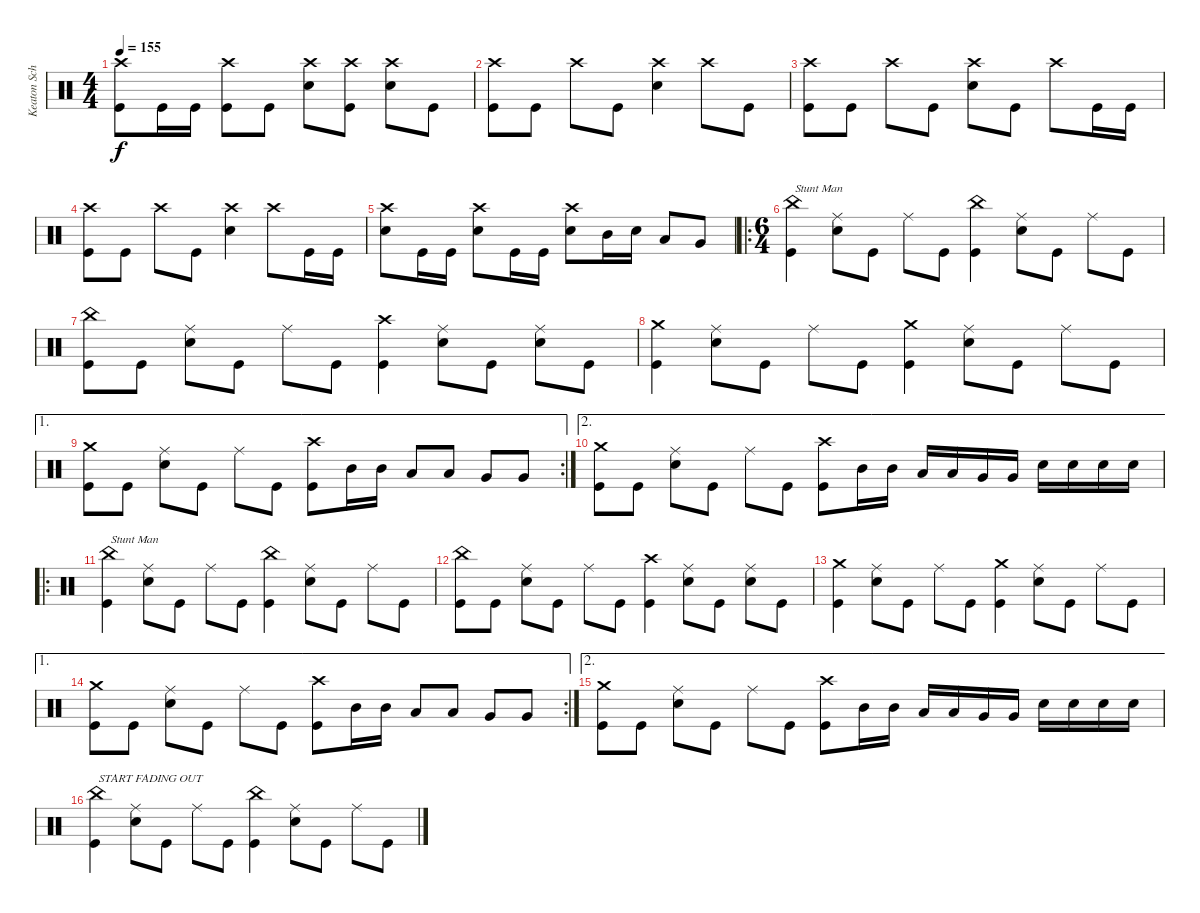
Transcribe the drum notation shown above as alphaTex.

\track ("Keaton Schluchter Drums" "Keaton Sch") {instrument percussion bank 20}
\staff {score}
\articulation defaults
\ts (4 4)
\tempo 155
\clef neutral
\ks c
("Crash high (hit)" "Kick (hit)").8{dy f} "Kick (hit)".16 "Kick (hit)".16 ("Crash high (hit)" "Kick (hit)").8 "Kick (hit)".8 ("Crash high (hit)" "Electric Snare (hit)").8 ("Crash high (hit)" "Kick (hit)").8 ("Crash high (hit)" "Electric Snare (hit)").8 "Kick (hit)".8 |
("Crash high (hit)" "Kick (hit)").8 "Kick (hit)".8 "Crash high (hit)".8 "Kick (hit)".8 ("Crash high (hit)" "Electric Snare (hit)").4 "Crash high (hit)".8 "Kick (hit)".8 |
("Crash high (hit)" "Kick (hit)").8 "Kick (hit)".8 "Crash high (hit)".8 "Kick (hit)".8 ("Crash high (hit)" "Electric Snare (hit)").8 "Kick (hit)".8 "Crash high (hit)".8 "Kick (hit)".16 "Kick (hit)".16 |
("Crash high (hit)" "Kick (hit)").8 "Kick (hit)".8 "Crash high (hit)".8 "Kick (hit)".8 ("Crash high (hit)" "Electric Snare (hit)").4 "Crash high (hit)".8 "Kick (hit)".16 "Kick (hit)".16 |
("Crash high (hit)" "Electric Snare (hit)").8 "Kick (hit)".16 "Kick (hit)".16 ("Crash high (hit)" "Electric Snare (hit)").8 "Kick (hit)".16 "Kick (hit)".16 ("Crash high (hit)" "Electric Snare (hit)").8 "Mid Tom (hit)".16 "Electric Snare (hit)".16 "Low Tom (hit)".8 "Very Low Tom (hit)".8 |
\ro
\ts (6 4)
("China (hit)" "Kick (hit)").4{txt "Stunt Man"} ("Ride (middle)" "Electric Snare (hit)").8 "Kick (hit)".8 "Ride (middle)".8 "Kick (hit)".8 ("China (hit)" "Kick (hit)").4 ("Ride (middle)" "Electric Snare (hit)").8 "Kick (hit)".8 "Ride (middle)".8 "Kick (hit)".8 |
("China (hit)" "Kick (hit)").8 "Kick (hit)".8 ("Ride (middle)" "Electric Snare (hit)").8 "Kick (hit)".8 "Ride (middle)".8 "Kick (hit)".8 ("Crash high (hit)" "Kick (hit)").4 ("Ride (middle)" "Electric Snare (hit)").8 "Kick (hit)".8 ("Ride (middle)" "Electric Snare (hit)").8 "Kick (hit)".8 |
("Crash medium (hit)" "Kick (hit)").4 ("Ride (middle)" "Electric Snare (hit)").8 "Kick (hit)".8 "Ride (middle)".8 "Kick (hit)".8 ("Crash medium (hit)" "Kick (hit)").4 ("Ride (middle)" "Electric Snare (hit)").8 "Kick (hit)".8 "Ride (middle)".8 "Kick (hit)".8 |
\ae 1
\rc 2
("Crash medium (hit)" "Kick (hit)").8 "Kick (hit)".8 ("Ride (middle)" "Electric Snare (hit)").8 "Kick (hit)".8 "Ride (middle)".8 "Kick (hit)".8 ("Crash high (hit)" "Kick (hit)").8 "Mid Tom (hit)".16 "Mid Tom (hit)".16 "Low Tom (hit)".8 "Low Tom (hit)".8 "Very Low Tom (hit)".8 "Very Low Tom (hit)".8 |
\ae 2
("Crash medium (hit)" "Kick (hit)").8 "Kick (hit)".8 ("Ride (middle)" "Electric Snare (hit)").8 "Kick (hit)".8 "Ride (middle)".8 "Kick (hit)".8 ("Crash high (hit)" "Kick (hit)").8 "Mid Tom (hit)".16 "Mid Tom (hit)".16 "Low Tom (hit)".16 "Low Tom (hit)".16 "Very Low Tom (hit)".16 "Very Low Tom (hit)".16 "Electric Snare (hit)".16 "Electric Snare (hit)".16 "Electric Snare (hit)".16 "Electric Snare (hit)".16 |
\ro
("China (hit)" "Kick (hit)").4{txt "Stunt Man"} ("Ride (middle)" "Electric Snare (hit)").8 "Kick (hit)".8 "Ride (middle)".8 "Kick (hit)".8 ("China (hit)" "Kick (hit)").4 ("Ride (middle)" "Electric Snare (hit)").8 "Kick (hit)".8 "Ride (middle)".8 "Kick (hit)".8 |
("China (hit)" "Kick (hit)").8 "Kick (hit)".8 ("Ride (middle)" "Electric Snare (hit)").8 "Kick (hit)".8 "Ride (middle)".8 "Kick (hit)".8 ("Crash high (hit)" "Kick (hit)").4 ("Ride (middle)" "Electric Snare (hit)").8 "Kick (hit)".8 ("Ride (middle)" "Electric Snare (hit)").8 "Kick (hit)".8 |
("Crash medium (hit)" "Kick (hit)").4 ("Ride (middle)" "Electric Snare (hit)").8 "Kick (hit)".8 "Ride (middle)".8 "Kick (hit)".8 ("Crash medium (hit)" "Kick (hit)").4 ("Ride (middle)" "Electric Snare (hit)").8 "Kick (hit)".8 "Ride (middle)".8 "Kick (hit)".8 |
\ae 1
\rc 2
("Crash medium (hit)" "Kick (hit)").8 "Kick (hit)".8 ("Ride (middle)" "Electric Snare (hit)").8 "Kick (hit)".8 "Ride (middle)".8 "Kick (hit)".8 ("Crash high (hit)" "Kick (hit)").8 "Mid Tom (hit)".16 "Mid Tom (hit)".16 "Low Tom (hit)".8 "Low Tom (hit)".8 "Very Low Tom (hit)".8 "Very Low Tom (hit)".8 |
\ae 2
("Crash medium (hit)" "Kick (hit)").8 "Kick (hit)".8 ("Ride (middle)" "Electric Snare (hit)").8 "Kick (hit)".8 "Ride (middle)".8 "Kick (hit)".8 ("Crash high (hit)" "Kick (hit)").8 "Mid Tom (hit)".16 "Mid Tom (hit)".16 "Low Tom (hit)".16 "Low Tom (hit)".16 "Very Low Tom (hit)".16 "Very Low Tom (hit)".16 "Electric Snare (hit)".16 "Electric Snare (hit)".16 "Electric Snare (hit)".16 "Electric Snare (hit)".16 |
("China (hit)" "Kick (hit)").4{txt "START FADING OUT"} ("Ride (middle)" "Electric Snare (hit)").8 "Kick (hit)".8 "Ride (middle)".8 "Kick (hit)".8 ("China (hit)" "Kick (hit)").4 ("Ride (middle)" "Electric Snare (hit)").8 "Kick (hit)".8 "Ride (middle)".8 "Kick (hit)".8
